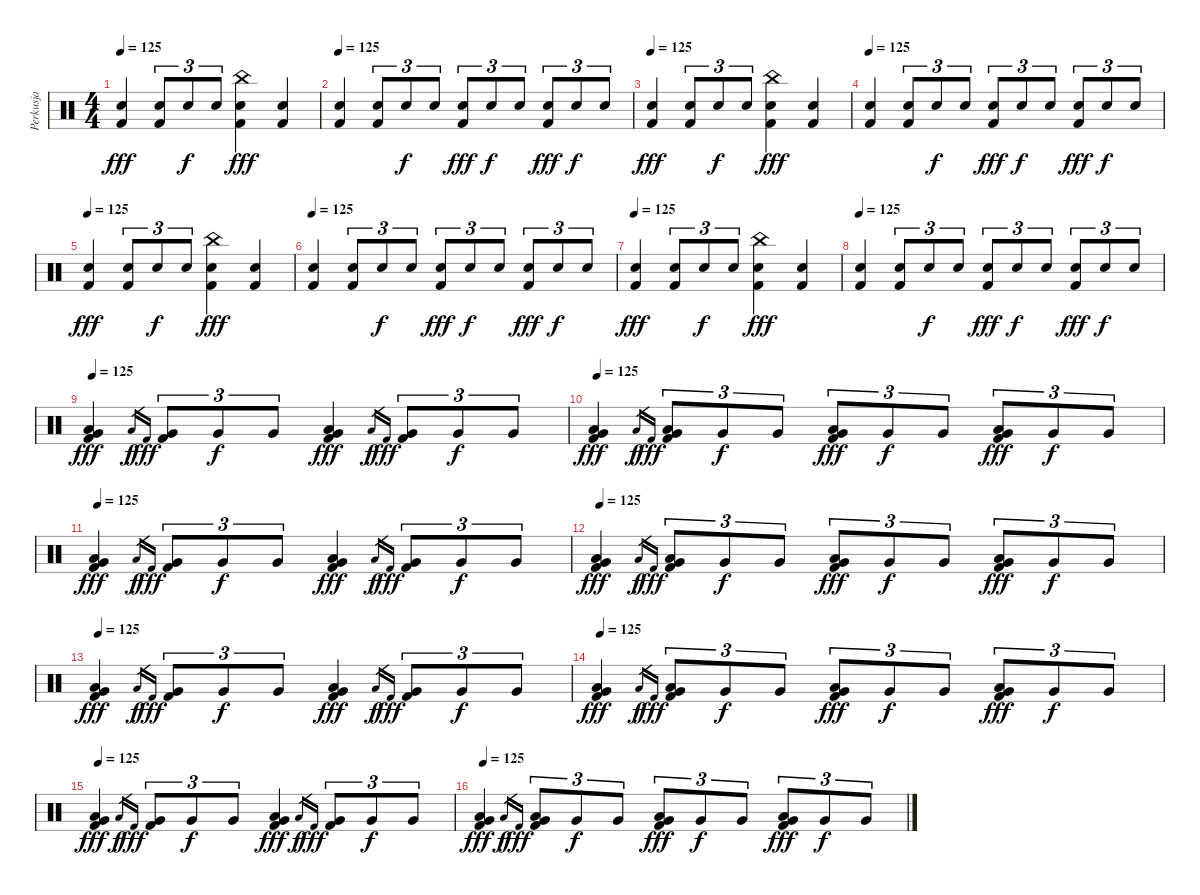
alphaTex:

\track ("Perkusja" "Perkusja") {instrument percussion}
\staff {score}
\articulation defaults
\ts (4 4)
\tempo 125
\clef neutral
\ks c
("Snare (hit) 2" "Kick (hit) 2").4{dy fff} ("Snare (hit) 2" "Kick (hit) 2").8{tu (3 2)} "Snare (hit) 2".8{tu (3 2) dy f} "Snare (hit) 2".8{tu (3 2)} ("China (hit)" "Snare (hit) 2" "Kick (hit) 2").4{dy fff} ("Snare (hit) 2" "Kick (hit) 2").4 |
\tempo 125
("Snare (hit) 2" "Kick (hit) 2").4 ("Snare (hit) 2" "Kick (hit) 2").8{tu (3 2)} "Snare (hit) 2".8{tu (3 2) dy f} "Snare (hit) 2".8{tu (3 2)} ("Snare (hit) 2" "Kick (hit) 2").8{tu (3 2) dy fff} "Snare (hit) 2".8{tu (3 2) dy f} "Snare (hit) 2".8{tu (3 2)} ("Snare (hit) 2" "Kick (hit) 2").8{tu (3 2) dy fff} "Snare (hit) 2".8{tu (3 2) dy f} "Snare (hit) 2".8{tu (3 2)} |
\tempo 125
("Snare (hit) 2" "Kick (hit) 2").4{dy fff} ("Snare (hit) 2" "Kick (hit) 2").8{tu (3 2)} "Snare (hit) 2".8{tu (3 2) dy f} "Snare (hit) 2".8{tu (3 2)} ("China (hit)" "Snare (hit) 2" "Kick (hit) 2").4{dy fff} ("Snare (hit) 2" "Kick (hit) 2").4 |
\tempo 125
("Snare (hit) 2" "Kick (hit) 2").4 ("Snare (hit) 2" "Kick (hit) 2").8{tu (3 2)} "Snare (hit) 2".8{tu (3 2) dy f} "Snare (hit) 2".8{tu (3 2)} ("Snare (hit) 2" "Kick (hit) 2").8{tu (3 2) dy fff} "Snare (hit) 2".8{tu (3 2) dy f} "Snare (hit) 2".8{tu (3 2)} ("Snare (hit) 2" "Kick (hit) 2").8{tu (3 2) dy fff} "Snare (hit) 2".8{tu (3 2) dy f} "Snare (hit) 2".8{tu (3 2)} |
\tempo 125
("Snare (hit) 2" "Kick (hit) 2").4{dy fff} ("Snare (hit) 2" "Kick (hit) 2").8{tu (3 2)} "Snare (hit) 2".8{tu (3 2) dy f} "Snare (hit) 2".8{tu (3 2)} ("China (hit)" "Snare (hit) 2" "Kick (hit) 2").4{dy fff} ("Snare (hit) 2" "Kick (hit) 2").4 |
\tempo 125
("Snare (hit) 2" "Kick (hit) 2").4 ("Snare (hit) 2" "Kick (hit) 2").8{tu (3 2)} "Snare (hit) 2".8{tu (3 2) dy f} "Snare (hit) 2".8{tu (3 2)} ("Snare (hit) 2" "Kick (hit) 2").8{tu (3 2) dy fff} "Snare (hit) 2".8{tu (3 2) dy f} "Snare (hit) 2".8{tu (3 2)} ("Snare (hit) 2" "Kick (hit) 2").8{tu (3 2) dy fff} "Snare (hit) 2".8{tu (3 2) dy f} "Snare (hit) 2".8{tu (3 2)} |
\tempo 125
("Snare (hit) 2" "Kick (hit) 2").4{dy fff} ("Snare (hit) 2" "Kick (hit) 2").8{tu (3 2)} "Snare (hit) 2".8{tu (3 2) dy f} "Snare (hit) 2".8{tu (3 2)} ("China (hit)" "Snare (hit) 2" "Kick (hit) 2").4{dy fff} ("Snare (hit) 2" "Kick (hit) 2").4 |
\tempo 125
("Snare (hit) 2" "Kick (hit) 2").4 ("Snare (hit) 2" "Kick (hit) 2").8{tu (3 2)} "Snare (hit) 2".8{tu (3 2) dy f} "Snare (hit) 2".8{tu (3 2)} ("Snare (hit) 2" "Kick (hit) 2").8{tu (3 2) dy fff} "Snare (hit) 2".8{tu (3 2) dy f} "Snare (hit) 2".8{tu (3 2)} ("Snare (hit) 2" "Kick (hit) 2").8{tu (3 2) dy fff} "Snare (hit) 2".8{tu (3 2) dy f} "Snare (hit) 2".8{tu (3 2)} |
\tempo 125
("Low Tom (hit)" "Very Low Tom (hit)" "Kick (hit) 2").4{dy fff} "Low Tom (hit)".16{gr dy f} "Kick (hit) 2".16{gr dy fff} ("Very Low Tom (hit)" "Kick (hit) 2").8{tu (3 2)} "Very Low Tom (hit)".8{tu (3 2) dy f} "Very Low Tom (hit)".8{tu (3 2)} ("Low Tom (hit)" "Very Low Tom (hit)" "Kick (hit) 2").4{dy fff} "Low Tom (hit)".16{gr dy f} "Kick (hit) 2".16{gr dy fff} ("Very Low Tom (hit)" "Kick (hit) 2").8{tu (3 2)} "Very Low Tom (hit)".8{tu (3 2) dy f} "Very Low Tom (hit)".8{tu (3 2)} |
\tempo 125
("Low Tom (hit)" "Very Low Tom (hit)" "Kick (hit) 2").4{dy fff} "Low Tom (hit)".16{gr dy f} "Kick (hit) 2".16{gr dy fff} ("Low Tom (hit)" "Very Low Tom (hit)" "Kick (hit) 2").8{tu (3 2)} "Very Low Tom (hit)".8{tu (3 2) dy f} "Very Low Tom (hit)".8{tu (3 2)} ("Low Tom (hit)" "Very Low Tom (hit)" "Kick (hit) 2").8{tu (3 2) dy fff} "Very Low Tom (hit)".8{tu (3 2) dy f} "Very Low Tom (hit)".8{tu (3 2)} ("Low Tom (hit)" "Very Low Tom (hit)" "Kick (hit) 2").8{tu (3 2) dy fff} "Very Low Tom (hit)".8{tu (3 2) dy f} "Very Low Tom (hit)".8{tu (3 2)} |
\tempo 125
("Low Tom (hit)" "Very Low Tom (hit)" "Kick (hit) 2").4{dy fff} "Low Tom (hit)".16{gr dy f} "Kick (hit) 2".16{gr dy fff} ("Very Low Tom (hit)" "Kick (hit) 2").8{tu (3 2)} "Very Low Tom (hit)".8{tu (3 2) dy f} "Very Low Tom (hit)".8{tu (3 2)} ("Low Tom (hit)" "Very Low Tom (hit)" "Kick (hit) 2").4{dy fff} "Low Tom (hit)".16{gr dy f} "Kick (hit) 2".16{gr dy fff} ("Very Low Tom (hit)" "Kick (hit) 2").8{tu (3 2)} "Very Low Tom (hit)".8{tu (3 2) dy f} "Very Low Tom (hit)".8{tu (3 2)} |
\tempo 125
("Low Tom (hit)" "Very Low Tom (hit)" "Kick (hit) 2").4{dy fff} "Low Tom (hit)".16{gr dy f} "Kick (hit) 2".16{gr dy fff} ("Low Tom (hit)" "Very Low Tom (hit)" "Kick (hit) 2").8{tu (3 2)} "Very Low Tom (hit)".8{tu (3 2) dy f} "Very Low Tom (hit)".8{tu (3 2)} ("Low Tom (hit)" "Very Low Tom (hit)" "Kick (hit) 2").8{tu (3 2) dy fff} "Very Low Tom (hit)".8{tu (3 2) dy f} "Very Low Tom (hit)".8{tu (3 2)} ("Low Tom (hit)" "Very Low Tom (hit)" "Kick (hit) 2").8{tu (3 2) dy fff} "Very Low Tom (hit)".8{tu (3 2) dy f} "Very Low Tom (hit)".8{tu (3 2)} |
\tempo 125
("Low Tom (hit)" "Very Low Tom (hit)" "Kick (hit) 2").4{dy fff} "Low Tom (hit)".16{gr dy f} "Kick (hit) 2".16{gr dy fff} ("Very Low Tom (hit)" "Kick (hit) 2").8{tu (3 2)} "Very Low Tom (hit)".8{tu (3 2) dy f} "Very Low Tom (hit)".8{tu (3 2)} ("Low Tom (hit)" "Very Low Tom (hit)" "Kick (hit) 2").4{dy fff} "Low Tom (hit)".16{gr dy f} "Kick (hit) 2".16{gr dy fff} ("Very Low Tom (hit)" "Kick (hit) 2").8{tu (3 2)} "Very Low Tom (hit)".8{tu (3 2) dy f} "Very Low Tom (hit)".8{tu (3 2)} |
\tempo 125
("Low Tom (hit)" "Very Low Tom (hit)" "Kick (hit) 2").4{dy fff} "Low Tom (hit)".16{gr dy f} "Kick (hit) 2".16{gr dy fff} ("Low Tom (hit)" "Very Low Tom (hit)" "Kick (hit) 2").8{tu (3 2)} "Very Low Tom (hit)".8{tu (3 2) dy f} "Very Low Tom (hit)".8{tu (3 2)} ("Low Tom (hit)" "Very Low Tom (hit)" "Kick (hit) 2").8{tu (3 2) dy fff} "Very Low Tom (hit)".8{tu (3 2) dy f} "Very Low Tom (hit)".8{tu (3 2)} ("Low Tom (hit)" "Very Low Tom (hit)" "Kick (hit) 2").8{tu (3 2) dy fff} "Very Low Tom (hit)".8{tu (3 2) dy f} "Very Low Tom (hit)".8{tu (3 2)} |
\tempo 125
("Low Tom (hit)" "Very Low Tom (hit)" "Kick (hit) 2").4{dy fff} "Low Tom (hit)".16{gr dy f} "Kick (hit) 2".16{gr dy fff} ("Very Low Tom (hit)" "Kick (hit) 2").8{tu (3 2)} "Very Low Tom (hit)".8{tu (3 2) dy f} "Very Low Tom (hit)".8{tu (3 2)} ("Low Tom (hit)" "Very Low Tom (hit)" "Kick (hit) 2").4{dy fff} "Low Tom (hit)".16{gr dy f} "Kick (hit) 2".16{gr dy fff} ("Very Low Tom (hit)" "Kick (hit) 2").8{tu (3 2)} "Very Low Tom (hit)".8{tu (3 2) dy f} "Very Low Tom (hit)".8{tu (3 2)} |
\tempo 125
("Low Tom (hit)" "Very Low Tom (hit)" "Kick (hit) 2").4{dy fff} "Low Tom (hit)".16{gr dy f} "Kick (hit) 2".16{gr dy fff} ("Low Tom (hit)" "Very Low Tom (hit)" "Kick (hit) 2").8{tu (3 2)} "Very Low Tom (hit)".8{tu (3 2) dy f} "Very Low Tom (hit)".8{tu (3 2)} ("Low Tom (hit)" "Very Low Tom (hit)" "Kick (hit) 2").8{tu (3 2) dy fff} "Very Low Tom (hit)".8{tu (3 2) dy f} "Very Low Tom (hit)".8{tu (3 2)} ("Low Tom (hit)" "Very Low Tom (hit)" "Kick (hit) 2").8{tu (3 2) dy fff} "Very Low Tom (hit)".8{tu (3 2) dy f} "Very Low Tom (hit)".8{tu (3 2)}
